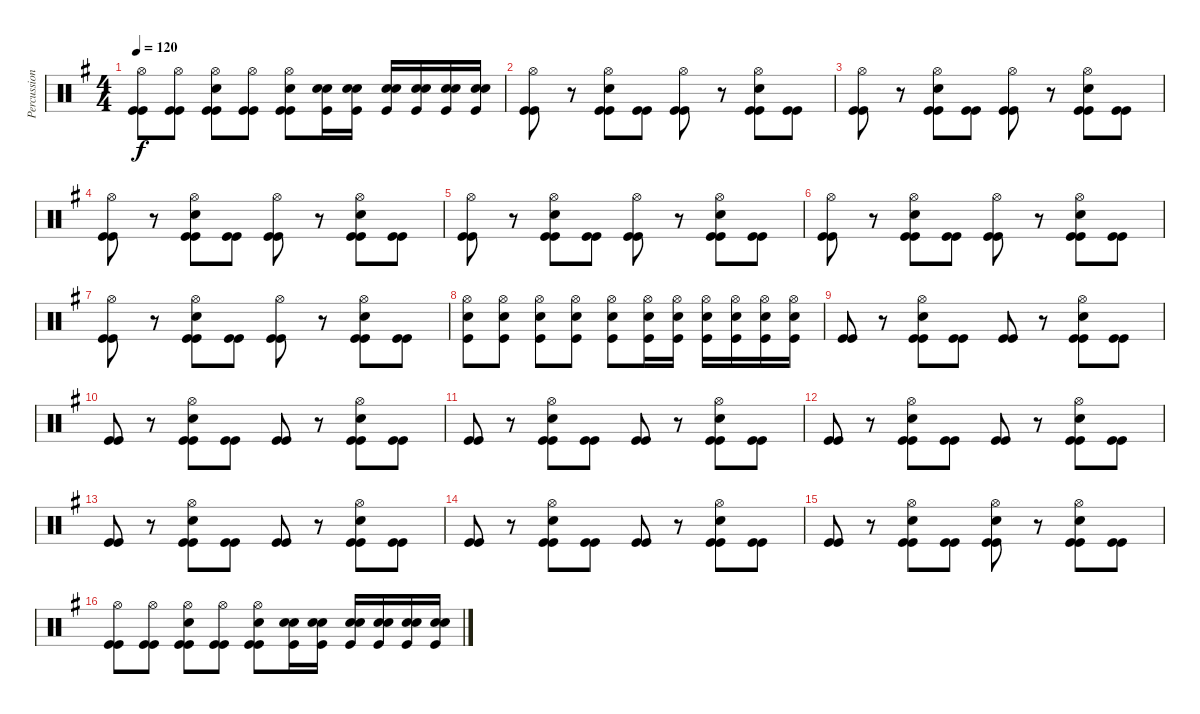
\track ("Percussion" "Percussion") {instrument percussion}
\staff {score}
\articulation defaults
\ts (4 4)
\tempo 120
\clef neutral
\ks eminor
("Hi-Hat (open)" "Kick (hit)" "Kick (hit)").8{dy f} ("Hi-Hat (open)" "Kick (hit)" "Kick (hit)").8 ("Hi-Hat (open)" "Kick (hit)" "Kick (hit)" "Snare (hit) 2").8 ("Hi-Hat (open)" "Kick (hit)" "Kick (hit)").8 ("Hi-Hat (open)" "Kick (hit)" "Kick (hit)" "Snare (hit) 2").8 ("Kick (hit)" "Electric Snare (hit)" "Snare (hit) 2").16 ("Kick (hit)" "Electric Snare (hit)" "Snare (hit) 2").16 ("Kick (hit)" "Electric Snare (hit)" "Snare (hit) 2").16 ("Kick (hit)" "Electric Snare (hit)" "Snare (hit) 2").16 ("Kick (hit)" "Electric Snare (hit)" "Snare (hit) 2").16 ("Kick (hit)" "Electric Snare (hit)" "Snare (hit) 2").16 |
("Hi-Hat (open)" "Kick (hit)" "Kick (hit)").8 r.8 ("Hi-Hat (open)" "Kick (hit)" "Kick (hit)" "Snare (hit) 2").8 ("Kick (hit)" "Kick (hit)").8 ("Hi-Hat (open)" "Kick (hit)" "Kick (hit)").8 r.8 ("Hi-Hat (open)" "Kick (hit)" "Kick (hit)" "Snare (hit) 2").8 ("Kick (hit)" "Kick (hit)").8 |
("Hi-Hat (open)" "Kick (hit)" "Kick (hit)").8 r.8 ("Hi-Hat (open)" "Kick (hit)" "Kick (hit)" "Snare (hit) 2").8 ("Kick (hit)" "Kick (hit)").8 ("Hi-Hat (open)" "Kick (hit)" "Kick (hit)").8 r.8 ("Hi-Hat (open)" "Kick (hit)" "Kick (hit)" "Snare (hit) 2").8 ("Kick (hit)" "Kick (hit)").8 |
("Hi-Hat (open)" "Kick (hit)" "Kick (hit)").8 r.8 ("Hi-Hat (open)" "Kick (hit)" "Kick (hit)" "Snare (hit) 2").8 ("Kick (hit)" "Kick (hit)").8 ("Hi-Hat (open)" "Kick (hit)" "Kick (hit)").8 r.8 ("Hi-Hat (open)" "Kick (hit)" "Kick (hit)" "Snare (hit) 2").8 ("Kick (hit)" "Kick (hit)").8 |
("Hi-Hat (open)" "Kick (hit)" "Kick (hit)").8 r.8 ("Hi-Hat (open)" "Kick (hit)" "Kick (hit)" "Snare (hit) 2").8 ("Kick (hit)" "Kick (hit)").8 ("Hi-Hat (open)" "Kick (hit)" "Kick (hit)").8 r.8 ("Hi-Hat (open)" "Kick (hit)" "Kick (hit)" "Snare (hit) 2").8 ("Kick (hit)" "Kick (hit)").8 |
("Hi-Hat (open)" "Kick (hit)" "Kick (hit)").8 r.8 ("Hi-Hat (open)" "Kick (hit)" "Kick (hit)" "Snare (hit) 2").8 ("Kick (hit)" "Kick (hit)").8 ("Hi-Hat (open)" "Kick (hit)" "Kick (hit)").8 r.8 ("Hi-Hat (open)" "Kick (hit)" "Kick (hit)" "Snare (hit) 2").8 ("Kick (hit)" "Kick (hit)").8 |
("Hi-Hat (open)" "Kick (hit)" "Kick (hit)").8 r.8 ("Hi-Hat (open)" "Kick (hit)" "Kick (hit)" "Snare (hit) 2").8 ("Kick (hit)" "Kick (hit)").8 ("Hi-Hat (open)" "Kick (hit)" "Kick (hit)").8 r.8 ("Hi-Hat (open)" "Kick (hit)" "Kick (hit)" "Snare (hit) 2").8 ("Kick (hit)" "Kick (hit)").8 |
("Hi-Hat (open)" "Kick (hit)" "Snare (hit) 2").8 ("Hi-Hat (open)" "Kick (hit)" "Snare (hit) 2").8 ("Hi-Hat (open)" "Kick (hit)" "Snare (hit) 2").8 ("Hi-Hat (open)" "Kick (hit)" "Snare (hit) 2").8 ("Hi-Hat (open)" "Kick (hit)" "Snare (hit) 2").8 ("Hi-Hat (open)" "Kick (hit)" "Snare (hit) 2").16 ("Hi-Hat (open)" "Kick (hit)" "Snare (hit) 2").16 ("Hi-Hat (open)" "Kick (hit)" "Snare (hit) 2").16 ("Hi-Hat (open)" "Kick (hit)" "Snare (hit) 2").16 ("Hi-Hat (open)" "Kick (hit)" "Snare (hit) 2").16 ("Hi-Hat (open)" "Kick (hit)" "Snare (hit) 2").16 |
("Kick (hit)" "Kick (hit)").8 r.8 ("Hi-Hat (open)" "Kick (hit)" "Kick (hit)" "Snare (hit) 2").8 ("Kick (hit)" "Kick (hit)").8 ("Kick (hit)" "Kick (hit)").8 r.8 ("Hi-Hat (open)" "Kick (hit)" "Kick (hit)" "Snare (hit) 2").8 ("Kick (hit)" "Kick (hit)").8 |
("Kick (hit)" "Kick (hit)").8 r.8 ("Hi-Hat (open)" "Kick (hit)" "Kick (hit)" "Snare (hit) 2").8 ("Kick (hit)" "Kick (hit)").8 ("Kick (hit)" "Kick (hit)").8 r.8 ("Hi-Hat (open)" "Kick (hit)" "Kick (hit)" "Snare (hit) 2").8 ("Kick (hit)" "Kick (hit)").8 |
("Kick (hit)" "Kick (hit)").8 r.8 ("Hi-Hat (open)" "Kick (hit)" "Kick (hit)" "Snare (hit) 2").8 ("Kick (hit)" "Kick (hit)").8 ("Kick (hit)" "Kick (hit)").8 r.8 ("Hi-Hat (open)" "Kick (hit)" "Kick (hit)" "Snare (hit) 2").8 ("Kick (hit)" "Kick (hit)").8 |
("Kick (hit)" "Kick (hit)").8 r.8 ("Hi-Hat (open)" "Kick (hit)" "Kick (hit)" "Snare (hit) 2").8 ("Kick (hit)" "Kick (hit)").8 ("Kick (hit)" "Kick (hit)").8 r.8 ("Hi-Hat (open)" "Kick (hit)" "Kick (hit)" "Snare (hit) 2").8 ("Kick (hit)" "Kick (hit)").8 |
("Kick (hit)" "Kick (hit)").8 r.8 ("Hi-Hat (open)" "Kick (hit)" "Kick (hit)" "Snare (hit) 2").8 ("Kick (hit)" "Kick (hit)").8 ("Kick (hit)" "Kick (hit)").8 r.8 ("Hi-Hat (open)" "Kick (hit)" "Kick (hit)" "Snare (hit) 2").8 ("Kick (hit)" "Kick (hit)").8 |
("Kick (hit)" "Kick (hit)").8 r.8 ("Hi-Hat (open)" "Kick (hit)" "Kick (hit)" "Snare (hit) 2").8 ("Kick (hit)" "Kick (hit)").8 ("Kick (hit)" "Kick (hit)").8 r.8 ("Hi-Hat (open)" "Kick (hit)" "Kick (hit)" "Snare (hit) 2").8 ("Kick (hit)" "Kick (hit)").8 |
("Kick (hit)" "Kick (hit)").8 r.8 ("Hi-Hat (open)" "Kick (hit)" "Kick (hit)" "Snare (hit) 2").8 ("Kick (hit)" "Kick (hit)").8 ("Hi-Hat (open)" "Kick (hit)" "Kick (hit)" "Snare (hit) 2").8 r.8 ("Hi-Hat (open)" "Kick (hit)" "Kick (hit)" "Snare (hit) 2").8 ("Kick (hit)" "Kick (hit)").8 |
("Hi-Hat (open)" "Kick (hit)" "Kick (hit)").8 ("Hi-Hat (open)" "Kick (hit)" "Kick (hit)").8 ("Hi-Hat (open)" "Kick (hit)" "Kick (hit)" "Snare (hit) 2").8 ("Hi-Hat (open)" "Kick (hit)" "Kick (hit)").8 ("Hi-Hat (open)" "Kick (hit)" "Kick (hit)" "Snare (hit) 2").8 ("Kick (hit)" "Electric Snare (hit)" "Snare (hit) 2").16 ("Kick (hit)" "Electric Snare (hit)" "Snare (hit) 2").16 ("Kick (hit)" "Electric Snare (hit)" "Snare (hit) 2").16 ("Kick (hit)" "Electric Snare (hit)" "Snare (hit) 2").16 ("Kick (hit)" "Electric Snare (hit)" "Snare (hit) 2").16 ("Kick (hit)" "Electric Snare (hit)" "Snare (hit) 2").16
